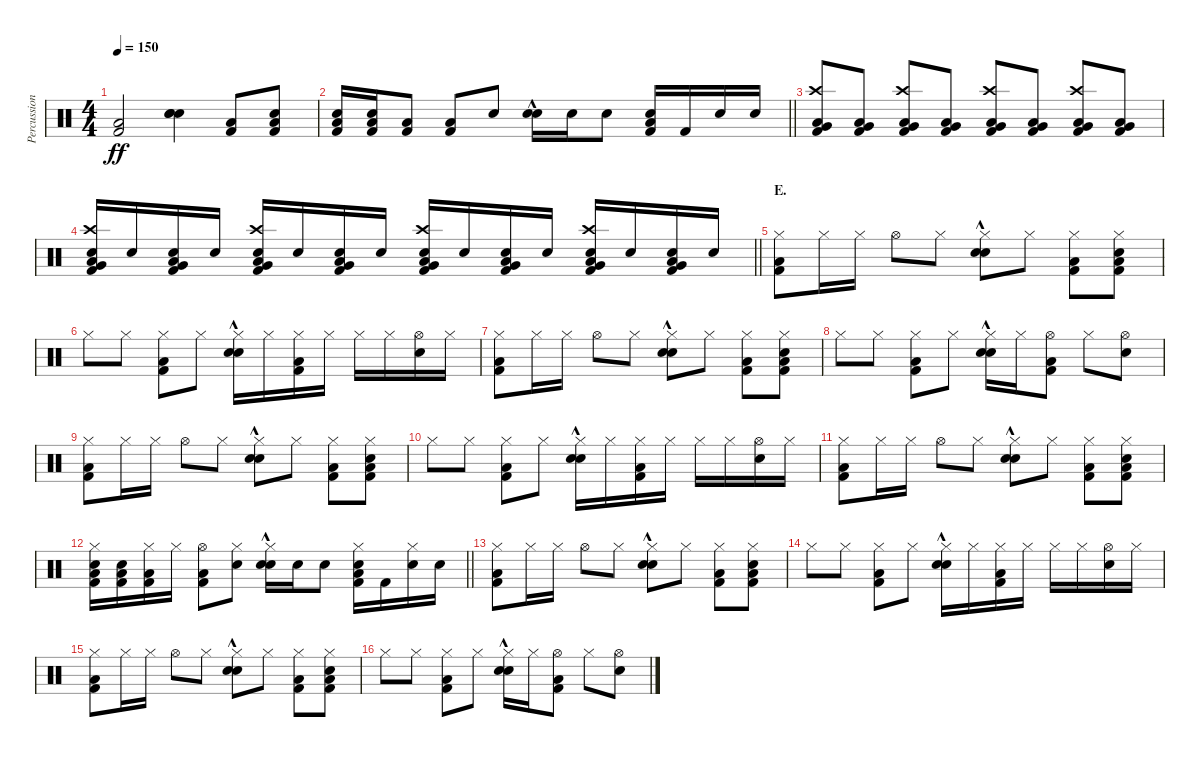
\track ("Percussion" "Percussion") {instrument percussion}
\staff {score}
\articulation defaults
\ts (4 4)
\tempo 150
\clef neutral
\ks c
("Low Floor Tom (hit)" "Kick (hit) 2").2{dy ff} ("Hand Clap (hit)" "Electric Snare (hit)" "Snare (hit) 2").4 ("Low Floor Tom (hit)" "Kick (hit) 2").8 ("Electric Snare (hit)" "Low Floor Tom (hit)" "Kick (hit) 2").8 |
\barLineRight lightlight
("Electric Snare (hit)" "Low Floor Tom (hit)" "Kick (hit) 2").16 ("Electric Snare (hit)" "Low Floor Tom (hit)" "Kick (hit) 2").16 ("Low Floor Tom (hit)" "Kick (hit) 2").8 ("Low Floor Tom (hit)" "Kick (hit) 2").8 "Electric Snare (hit)".8 ("Hand Clap (hit)"{hac} "Electric Snare (hit)").16 "Electric Snare (hit)".16 "Electric Snare (hit)".8 ("Electric Snare (hit)" "Low Floor Tom (hit)" "Kick (hit) 2").16 "Kick (hit) 2".16 "Electric Snare (hit)".16 "Electric Snare (hit)".16 |
\section ("" "")
("Crash high (hit)" "Very Low Tom (hit)" "Low Floor Tom (hit)" "Kick (hit) 2").8 ("Very Low Tom (hit)" "Low Floor Tom (hit)" "Kick (hit) 2").8 ("Crash high (hit)" "Very Low Tom (hit)" "Low Floor Tom (hit)" "Kick (hit) 2").8 ("Very Low Tom (hit)" "Low Floor Tom (hit)" "Kick (hit) 2").8 ("Crash high (hit)" "Very Low Tom (hit)" "Low Floor Tom (hit)" "Kick (hit) 2").8 ("Very Low Tom (hit)" "Low Floor Tom (hit)" "Kick (hit) 2").8 ("Crash high (hit)" "Very Low Tom (hit)" "Low Floor Tom (hit)" "Kick (hit) 2").8 ("Very Low Tom (hit)" "Low Floor Tom (hit)" "Kick (hit) 2").8 |
\barLineRight lightlight
("Crash high (hit)" "Very Low Tom (hit)" "Electric Snare (hit)" "Low Floor Tom (hit)" "Kick (hit) 2").16 "Electric Snare (hit)".16 ("Very Low Tom (hit)" "Electric Snare (hit)" "Low Floor Tom (hit)" "Kick (hit) 2").16 "Electric Snare (hit)".16 ("Crash high (hit)" "Very Low Tom (hit)" "Electric Snare (hit)" "Low Floor Tom (hit)" "Kick (hit) 2").16 "Electric Snare (hit)".16 ("Very Low Tom (hit)" "Electric Snare (hit)" "Low Floor Tom (hit)" "Kick (hit) 2").16 "Electric Snare (hit)".16 ("Crash high (hit)" "Very Low Tom (hit)" "Electric Snare (hit)" "Low Floor Tom (hit)" "Kick (hit) 2").16 "Electric Snare (hit)".16 ("Very Low Tom (hit)" "Electric Snare (hit)" "Low Floor Tom (hit)" "Kick (hit) 2").16 "Electric Snare (hit)".16 ("Crash high (hit)" "Very Low Tom (hit)" "Electric Snare (hit)" "Low Floor Tom (hit)" "Kick (hit) 2").16 "Electric Snare (hit)".16 ("Very Low Tom (hit)" "Electric Snare (hit)" "Low Floor Tom (hit)" "Kick (hit) 2").16 "Electric Snare (hit)".16 |
\section ("" "E.")
("Hi-Hat (closed)" "Low Floor Tom (hit)" "Kick (hit) 2").8 "Hi-Hat (closed)".16 "Hi-Hat (closed)".16 "Hi-Hat (open)".8 "Hi-Hat (closed)".8 ("Hand Clap (hit)"{hac} "Hi-Hat (closed)" "Electric Snare (hit)").8 "Hi-Hat (closed)".8 ("Hi-Hat (closed)" "Low Floor Tom (hit)" "Kick (hit) 2").8 ("Hi-Hat (closed)" "Electric Snare (hit)" "Low Floor Tom (hit)" "Kick (hit) 2").8 |
"Hi-Hat (closed)".8 "Hi-Hat (closed)".8 ("Hi-Hat (closed)" "Low Floor Tom (hit)" "Kick (hit) 2").8 "Hi-Hat (closed)".8 ("Hand Clap (hit)"{hac} "Hi-Hat (closed)" "Electric Snare (hit)").16 "Hi-Hat (closed)".16 ("Hi-Hat (closed)" "Low Floor Tom (hit)" "Kick (hit) 2").16 "Hi-Hat (closed)".16 "Hi-Hat (closed)".16 "Hi-Hat (closed)".16 ("Hi-Hat (open)" "Electric Snare (hit)").16 "Hi-Hat (closed)".16 |
("Hi-Hat (closed)" "Low Floor Tom (hit)" "Kick (hit) 2").8 "Hi-Hat (closed)".16 "Hi-Hat (closed)".16 "Hi-Hat (open)".8 "Hi-Hat (closed)".8 ("Hand Clap (hit)"{hac} "Hi-Hat (closed)" "Electric Snare (hit)").8 "Hi-Hat (closed)".8 ("Hi-Hat (closed)" "Low Floor Tom (hit)" "Kick (hit) 2").8 ("Hi-Hat (closed)" "Electric Snare (hit)" "Low Floor Tom (hit)" "Kick (hit) 2").8 |
"Hi-Hat (closed)".8 "Hi-Hat (closed)".8 ("Hi-Hat (closed)" "Low Floor Tom (hit)" "Kick (hit) 2").8 "Hi-Hat (closed)".8 ("Hand Clap (hit)"{hac} "Hi-Hat (closed)" "Electric Snare (hit)").16 "Hi-Hat (closed)".16 ("Hi-Hat (open)" "Low Floor Tom (hit)" "Kick (hit) 2").8 "Hi-Hat (closed)".8 ("Hi-Hat (open)" "Electric Snare (hit)").8 |
("Hi-Hat (closed)" "Low Floor Tom (hit)" "Kick (hit) 2").8 "Hi-Hat (closed)".16 "Hi-Hat (closed)".16 "Hi-Hat (open)".8 "Hi-Hat (closed)".8 ("Hand Clap (hit)"{hac} "Hi-Hat (closed)" "Electric Snare (hit)").8 "Hi-Hat (closed)".8 ("Hi-Hat (closed)" "Low Floor Tom (hit)" "Kick (hit) 2").8 ("Hi-Hat (closed)" "Electric Snare (hit)" "Low Floor Tom (hit)" "Kick (hit) 2").8 |
"Hi-Hat (closed)".8 "Hi-Hat (closed)".8 ("Hi-Hat (closed)" "Low Floor Tom (hit)" "Kick (hit) 2").8 "Hi-Hat (closed)".8 ("Hand Clap (hit)"{hac} "Hi-Hat (closed)" "Electric Snare (hit)").16 "Hi-Hat (closed)".16 ("Hi-Hat (closed)" "Low Floor Tom (hit)" "Kick (hit) 2").16 "Hi-Hat (closed)".16 "Hi-Hat (closed)".16 "Hi-Hat (closed)".16 ("Hi-Hat (open)" "Electric Snare (hit)").16 "Hi-Hat (closed)".16 |
("Hi-Hat (closed)" "Low Floor Tom (hit)" "Kick (hit) 2").8 "Hi-Hat (closed)".16 "Hi-Hat (closed)".16 "Hi-Hat (open)".8 "Hi-Hat (closed)".8 ("Hand Clap (hit)"{hac} "Hi-Hat (closed)" "Electric Snare (hit)").8 "Hi-Hat (closed)".8 ("Hi-Hat (closed)" "Low Floor Tom (hit)" "Kick (hit) 2").8 ("Hi-Hat (closed)" "Electric Snare (hit)" "Low Floor Tom (hit)" "Kick (hit) 2").8 |
\barLineRight lightlight
("Hi-Hat (closed)" "Electric Snare (hit)" "Low Floor Tom (hit)" "Kick (hit) 2").16 ("Electric Snare (hit)" "Low Floor Tom (hit)" "Kick (hit) 2").16 ("Hi-Hat (closed)" "Low Floor Tom (hit)" "Kick (hit) 2").16 "Hi-Hat (closed)".16 ("Hi-Hat (open)" "Low Floor Tom (hit)" "Kick (hit) 2").8 ("Hi-Hat (closed)" "Electric Snare (hit)").8 ("Hand Clap (hit)"{hac} "Hi-Hat (closed)" "Electric Snare (hit)").16 "Electric Snare (hit)".16 "Electric Snare (hit)".8 ("Hi-Hat (closed)" "Electric Snare (hit)" "Low Floor Tom (hit)" "Kick (hit) 2").16 "Kick (hit) 2".16 ("Hi-Hat (closed)" "Electric Snare (hit)").16 "Electric Snare (hit)".16 |
("Hi-Hat (closed)" "Low Floor Tom (hit)" "Kick (hit) 2").8 "Hi-Hat (closed)".16 "Hi-Hat (closed)".16 "Hi-Hat (open)".8 "Hi-Hat (closed)".8 ("Hand Clap (hit)"{hac} "Hi-Hat (closed)" "Electric Snare (hit)").8 "Hi-Hat (closed)".8 ("Hi-Hat (closed)" "Low Floor Tom (hit)" "Kick (hit) 2").8 ("Hi-Hat (closed)" "Electric Snare (hit)" "Low Floor Tom (hit)" "Kick (hit) 2").8 |
"Hi-Hat (closed)".8 "Hi-Hat (closed)".8 ("Hi-Hat (closed)" "Low Floor Tom (hit)" "Kick (hit) 2").8 "Hi-Hat (closed)".8 ("Hand Clap (hit)"{hac} "Hi-Hat (closed)" "Electric Snare (hit)").16 "Hi-Hat (closed)".16 ("Hi-Hat (closed)" "Low Floor Tom (hit)" "Kick (hit) 2").16 "Hi-Hat (closed)".16 "Hi-Hat (closed)".16 "Hi-Hat (closed)".16 ("Hi-Hat (open)" "Electric Snare (hit)").16 "Hi-Hat (closed)".16 |
("Hi-Hat (closed)" "Low Floor Tom (hit)" "Kick (hit) 2").8 "Hi-Hat (closed)".16 "Hi-Hat (closed)".16 "Hi-Hat (open)".8 "Hi-Hat (closed)".8 ("Hand Clap (hit)"{hac} "Hi-Hat (closed)" "Electric Snare (hit)").8 "Hi-Hat (closed)".8 ("Hi-Hat (closed)" "Low Floor Tom (hit)" "Kick (hit) 2").8 ("Hi-Hat (closed)" "Electric Snare (hit)" "Low Floor Tom (hit)" "Kick (hit) 2").8 |
"Hi-Hat (closed)".8 "Hi-Hat (closed)".8 ("Hi-Hat (closed)" "Low Floor Tom (hit)" "Kick (hit) 2").8 "Hi-Hat (closed)".8 ("Hand Clap (hit)"{hac} "Hi-Hat (closed)" "Electric Snare (hit)").16 "Hi-Hat (closed)".16 ("Hi-Hat (open)" "Low Floor Tom (hit)" "Kick (hit) 2").8 "Hi-Hat (closed)".8 ("Hi-Hat (open)" "Electric Snare (hit)").8
